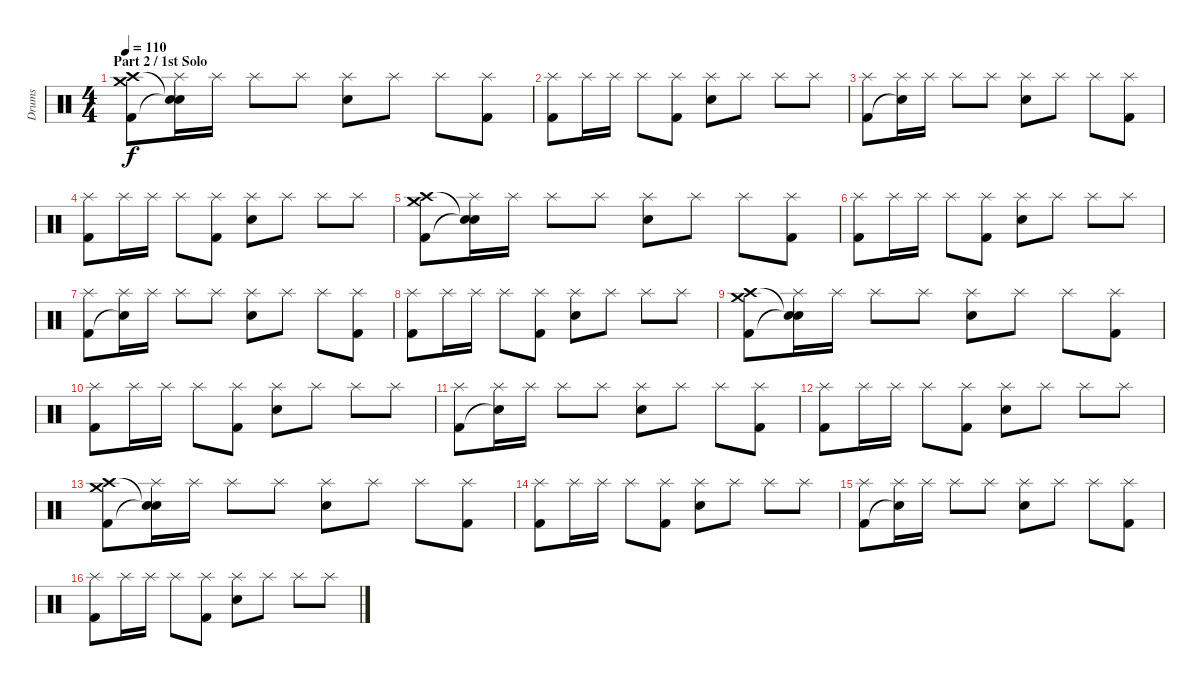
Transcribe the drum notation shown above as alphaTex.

\track ("Drums" "Drums") {instrument percussion}
\staff {score}
\articulation defaults
\ts (4 4)
\section ("" "Part 2 / 1st Solo")
\tempo 110
\clef neutral
\ks c
("Crash medium (hit)" "Crash high (hit)" "Kick (hit) 2").8{dy f} ("Splash (hit)" "Snare (hit)"{t} "Snare (hit)"{t}).16 "Splash (hit)".16 "Splash (hit)".8 "Splash (hit)".8 ("Splash (hit)" "Snare (hit) 2").8 "Splash (hit)".8 "Splash (hit)".8 ("Splash (hit)" "Kick (hit) 2").8 |
("Splash (hit)" "Kick (hit) 2").8 "Splash (hit)".16 "Splash (hit)".16 "Splash (hit)".8 ("Splash (hit)" "Kick (hit) 2").8 ("Splash (hit)" "Snare (hit) 2").8 "Splash (hit)".8 "Splash (hit)".8 "Splash (hit)".8 |
("Splash (hit)" "Kick (hit) 2").8 ("Splash (hit)" "Snare (hit)"{t}).16 "Splash (hit)".16 "Splash (hit)".8 "Splash (hit)".8 ("Splash (hit)" "Snare (hit) 2").8 "Splash (hit)".8 "Splash (hit)".8 ("Splash (hit)" "Kick (hit) 2").8 |
("Splash (hit)" "Kick (hit) 2").8 "Splash (hit)".16 "Splash (hit)".16 "Splash (hit)".8 ("Splash (hit)" "Kick (hit) 2").8 ("Splash (hit)" "Snare (hit) 2").8 "Splash (hit)".8 "Splash (hit)".8 "Splash (hit)".8 |
("Crash medium (hit)" "Crash high (hit)" "Kick (hit) 2").8 ("Splash (hit)" "Snare (hit)"{t} "Snare (hit)"{t}).16 "Splash (hit)".16 "Splash (hit)".8 "Splash (hit)".8 ("Splash (hit)" "Snare (hit) 2").8 "Splash (hit)".8 "Splash (hit)".8 ("Splash (hit)" "Kick (hit) 2").8 |
("Splash (hit)" "Kick (hit) 2").8 "Splash (hit)".16 "Splash (hit)".16 "Splash (hit)".8 ("Splash (hit)" "Kick (hit) 2").8 ("Splash (hit)" "Snare (hit) 2").8 "Splash (hit)".8 "Splash (hit)".8 "Splash (hit)".8 |
("Splash (hit)" "Kick (hit) 2").8 ("Splash (hit)" "Snare (hit)"{t}).16 "Splash (hit)".16 "Splash (hit)".8 "Splash (hit)".8 ("Splash (hit)" "Snare (hit) 2").8 "Splash (hit)".8 "Splash (hit)".8 ("Splash (hit)" "Kick (hit) 2").8 |
("Splash (hit)" "Kick (hit) 2").8 "Splash (hit)".16 "Splash (hit)".16 "Splash (hit)".8 ("Splash (hit)" "Kick (hit) 2").8 ("Splash (hit)" "Snare (hit) 2").8 "Splash (hit)".8 "Splash (hit)".8 "Splash (hit)".8 |
("Crash medium (hit)" "Crash high (hit)" "Kick (hit) 2").8 ("Splash (hit)" "Snare (hit)"{t} "Snare (hit)"{t}).16 "Splash (hit)".16 "Splash (hit)".8 "Splash (hit)".8 ("Splash (hit)" "Snare (hit) 2").8 "Splash (hit)".8 "Splash (hit)".8 ("Splash (hit)" "Kick (hit) 2").8 |
("Splash (hit)" "Kick (hit) 2").8 "Splash (hit)".16 "Splash (hit)".16 "Splash (hit)".8 ("Splash (hit)" "Kick (hit) 2").8 ("Splash (hit)" "Snare (hit) 2").8 "Splash (hit)".8 "Splash (hit)".8 "Splash (hit)".8 |
("Splash (hit)" "Kick (hit) 2").8 ("Splash (hit)" "Snare (hit)"{t}).16 "Splash (hit)".16 "Splash (hit)".8 "Splash (hit)".8 ("Splash (hit)" "Snare (hit) 2").8 "Splash (hit)".8 "Splash (hit)".8 ("Splash (hit)" "Kick (hit) 2").8 |
("Splash (hit)" "Kick (hit) 2").8 "Splash (hit)".16 "Splash (hit)".16 "Splash (hit)".8 ("Splash (hit)" "Kick (hit) 2").8 ("Splash (hit)" "Snare (hit) 2").8 "Splash (hit)".8 "Splash (hit)".8 "Splash (hit)".8 |
("Crash medium (hit)" "Crash high (hit)" "Kick (hit) 2").8 ("Splash (hit)" "Snare (hit)"{t} "Snare (hit)"{t}).16 "Splash (hit)".16 "Splash (hit)".8 "Splash (hit)".8 ("Splash (hit)" "Snare (hit) 2").8 "Splash (hit)".8 "Splash (hit)".8 ("Splash (hit)" "Kick (hit) 2").8 |
("Splash (hit)" "Kick (hit) 2").8 "Splash (hit)".16 "Splash (hit)".16 "Splash (hit)".8 ("Splash (hit)" "Kick (hit) 2").8 ("Splash (hit)" "Snare (hit) 2").8 "Splash (hit)".8 "Splash (hit)".8 "Splash (hit)".8 |
("Splash (hit)" "Kick (hit) 2").8 ("Splash (hit)" "Snare (hit)"{t}).16 "Splash (hit)".16 "Splash (hit)".8 "Splash (hit)".8 ("Splash (hit)" "Snare (hit) 2").8 "Splash (hit)".8 "Splash (hit)".8 ("Splash (hit)" "Kick (hit) 2").8 |
("Splash (hit)" "Kick (hit) 2").8 "Splash (hit)".16 "Splash (hit)".16 "Splash (hit)".8 ("Splash (hit)" "Kick (hit) 2").8 ("Splash (hit)" "Snare (hit) 2").8 "Splash (hit)".8 "Splash (hit)".8 "Splash (hit)".8
